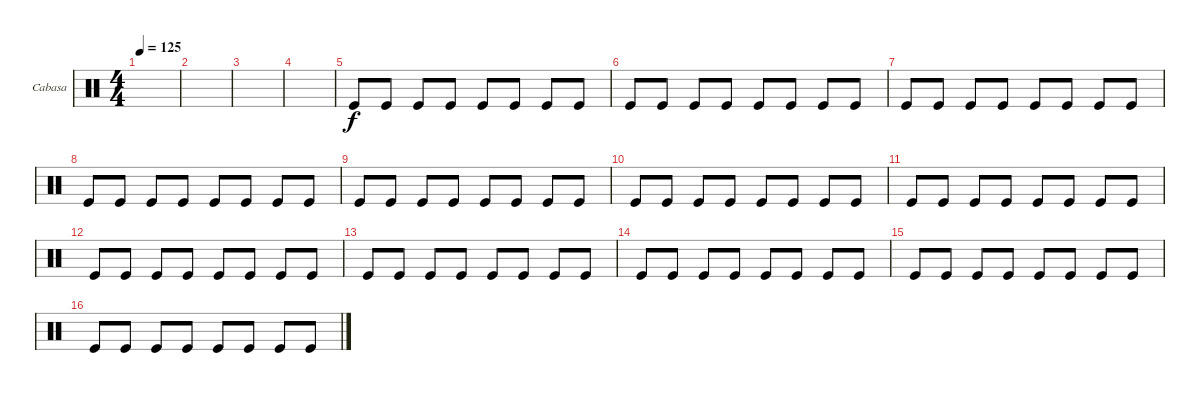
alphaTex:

\defaultSystemsLayout 4
\bracketExtendMode groupsimilarinstruments
\firstSystemTrackNameOrientation horizontal
\otherSystemsTrackNameOrientation horizontal
\track ("Cabasa" "Cabasa") {instrument percussion}
\staff {score}
\articulation defaults
\ts (4 4)
\tempo 125
\clef neutral
\ks c
|
|
|
|
"Kick (hit)".8 "Kick (hit)".8 "Kick (hit)".8 "Kick (hit)".8 "Kick (hit)".8 "Kick (hit)".8 "Kick (hit)".8 "Kick (hit)".8 |
"Kick (hit)".8 "Kick (hit)".8 "Kick (hit)".8 "Kick (hit)".8 "Kick (hit)".8 "Kick (hit)".8 "Kick (hit)".8 "Kick (hit)".8 |
"Kick (hit)".8 "Kick (hit)".8 "Kick (hit)".8 "Kick (hit)".8 "Kick (hit)".8 "Kick (hit)".8 "Kick (hit)".8 "Kick (hit)".8 |
"Kick (hit)".8 "Kick (hit)".8 "Kick (hit)".8 "Kick (hit)".8 "Kick (hit)".8 "Kick (hit)".8 "Kick (hit)".8 "Kick (hit)".8 |
"Kick (hit)".8 "Kick (hit)".8 "Kick (hit)".8 "Kick (hit)".8 "Kick (hit)".8 "Kick (hit)".8 "Kick (hit)".8 "Kick (hit)".8 |
"Kick (hit)".8 "Kick (hit)".8 "Kick (hit)".8 "Kick (hit)".8 "Kick (hit)".8 "Kick (hit)".8 "Kick (hit)".8 "Kick (hit)".8 |
"Kick (hit)".8 "Kick (hit)".8 "Kick (hit)".8 "Kick (hit)".8 "Kick (hit)".8 "Kick (hit)".8 "Kick (hit)".8 "Kick (hit)".8 |
"Kick (hit)".8 "Kick (hit)".8 "Kick (hit)".8 "Kick (hit)".8 "Kick (hit)".8 "Kick (hit)".8 "Kick (hit)".8 "Kick (hit)".8 |
"Kick (hit)".8 "Kick (hit)".8 "Kick (hit)".8 "Kick (hit)".8 "Kick (hit)".8 "Kick (hit)".8 "Kick (hit)".8 "Kick (hit)".8 |
"Kick (hit)".8 "Kick (hit)".8 "Kick (hit)".8 "Kick (hit)".8 "Kick (hit)".8 "Kick (hit)".8 "Kick (hit)".8 "Kick (hit)".8 |
"Kick (hit)".8 "Kick (hit)".8 "Kick (hit)".8 "Kick (hit)".8 "Kick (hit)".8 "Kick (hit)".8 "Kick (hit)".8 "Kick (hit)".8 |
"Kick (hit)".8 "Kick (hit)".8 "Kick (hit)".8 "Kick (hit)".8 "Kick (hit)".8 "Kick (hit)".8 "Kick (hit)".8 "Kick (hit)".8
